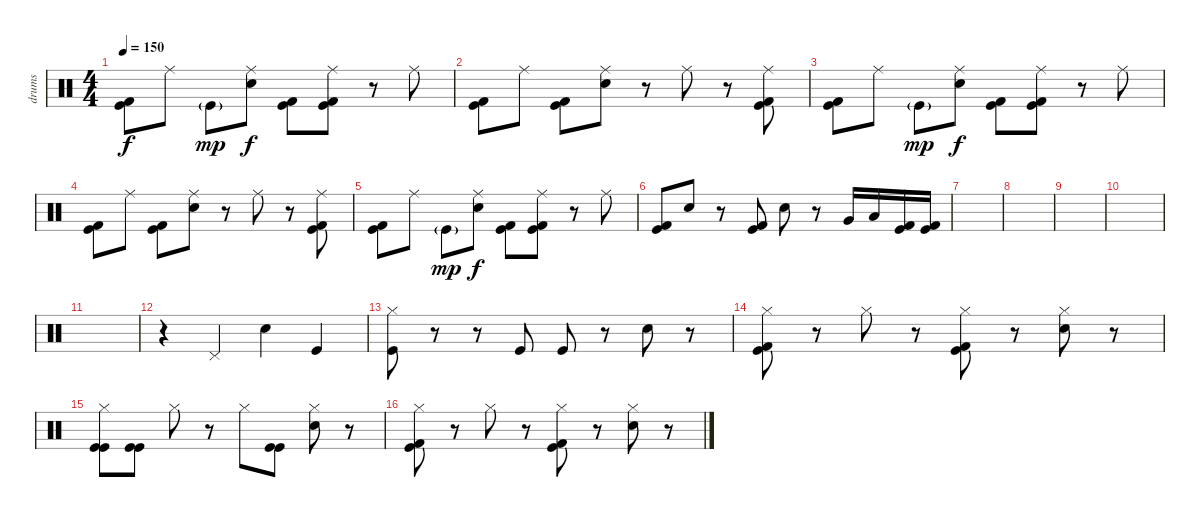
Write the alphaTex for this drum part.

\track ("drums" "drums") {instrument percussion}
\staff {score}
\articulation defaults
\ts (4 4)
\tempo 150
\clef neutral
\ks c
("Kick (hit)" "Kick (hit) 2").8{dy f} "Ride (middle)".8 "Kick (hit)"{g}.8{dy mp} ("Electric Snare (hit)" "Ride (middle)").8{dy f} ("Kick (hit)" "Kick (hit) 2").8 ("Kick (hit)" "Kick (hit) 2" "Ride (middle)").8 r.8 "Ride (middle)".8 |
("Kick (hit)" "Kick (hit) 2").8 "Ride (middle)".8 ("Kick (hit)" "Kick (hit) 2").8 ("Electric Snare (hit)" "Ride (middle)").8 r.8 "Ride (middle)".8 r.8 ("Kick (hit)" "Kick (hit) 2" "Ride (middle)").8 |
("Kick (hit)" "Kick (hit) 2").8 "Ride (middle)".8 "Kick (hit)"{g}.8{dy mp} ("Electric Snare (hit)" "Ride (middle)").8{dy f} ("Kick (hit)" "Kick (hit) 2").8 ("Kick (hit)" "Kick (hit) 2" "Ride (middle)").8 r.8 "Ride (middle)".8 |
("Kick (hit)" "Kick (hit) 2").8 "Ride (middle)".8 ("Kick (hit)" "Kick (hit) 2").8 ("Electric Snare (hit)" "Ride (middle)").8 r.8 "Ride (middle)".8 r.8 ("Kick (hit)" "Kick (hit) 2" "Ride (middle)").8 |
("Kick (hit)" "Kick (hit) 2").8 "Ride (middle)".8 "Kick (hit)"{g}.8{dy mp} ("Electric Snare (hit)" "Ride (middle)").8{dy f} ("Kick (hit)" "Kick (hit) 2").8 ("Kick (hit)" "Kick (hit) 2" "Ride (middle)").8 r.8 "Ride (middle)".8 |
("Kick (hit)" "Kick (hit) 2").8 "Electric Snare (hit)".8 r.8 ("Kick (hit) 2" "Kick (hit)").8 "Electric Snare (hit)".8 r.8 "Very Low Tom (hit)".16 "Low Floor Tom (hit)".16 ("Kick (hit)" "Kick (hit) 2").16 ("Kick (hit)" "Kick (hit) 2").16 |
|
|
|
|
|
r.4 "Pedal Hi-Hat (hit)".4 "Electric Snare (hit)".4 "Kick (hit)".4 |
("Kick (hit)" "Hi-Hat (closed)").8 r.8 r.8 "Kick (hit)".8 "Kick (hit)".8 r.8 "Electric Snare (hit)".8 r.8 |
("Kick (hit)" "Kick (hit) 2" "Hi-Hat (closed)").8 r.8 "Hi-Hat (closed)".8 r.8 ("Kick (hit)" "Kick (hit) 2" "Hi-Hat (closed)").8 r.8 ("Electric Snare (hit)" "Hi-Hat (closed)").8 r.8 |
("Kick (hit)" "Kick (hit)" "Hi-Hat (closed)").8 ("Kick (hit)" "Kick (hit)").8 "Hi-Hat (closed)".8 r.8 "Hi-Hat (closed)".8 ("Kick (hit)" "Kick (hit)").8 ("Electric Snare (hit)" "Hi-Hat (closed)").8 r.8 |
("Kick (hit)" "Kick (hit) 2" "Hi-Hat (closed)").8 r.8 "Hi-Hat (closed)".8 r.8 ("Kick (hit)" "Kick (hit) 2" "Hi-Hat (closed)").8 r.8 ("Electric Snare (hit)" "Hi-Hat (closed)").8 r.8
